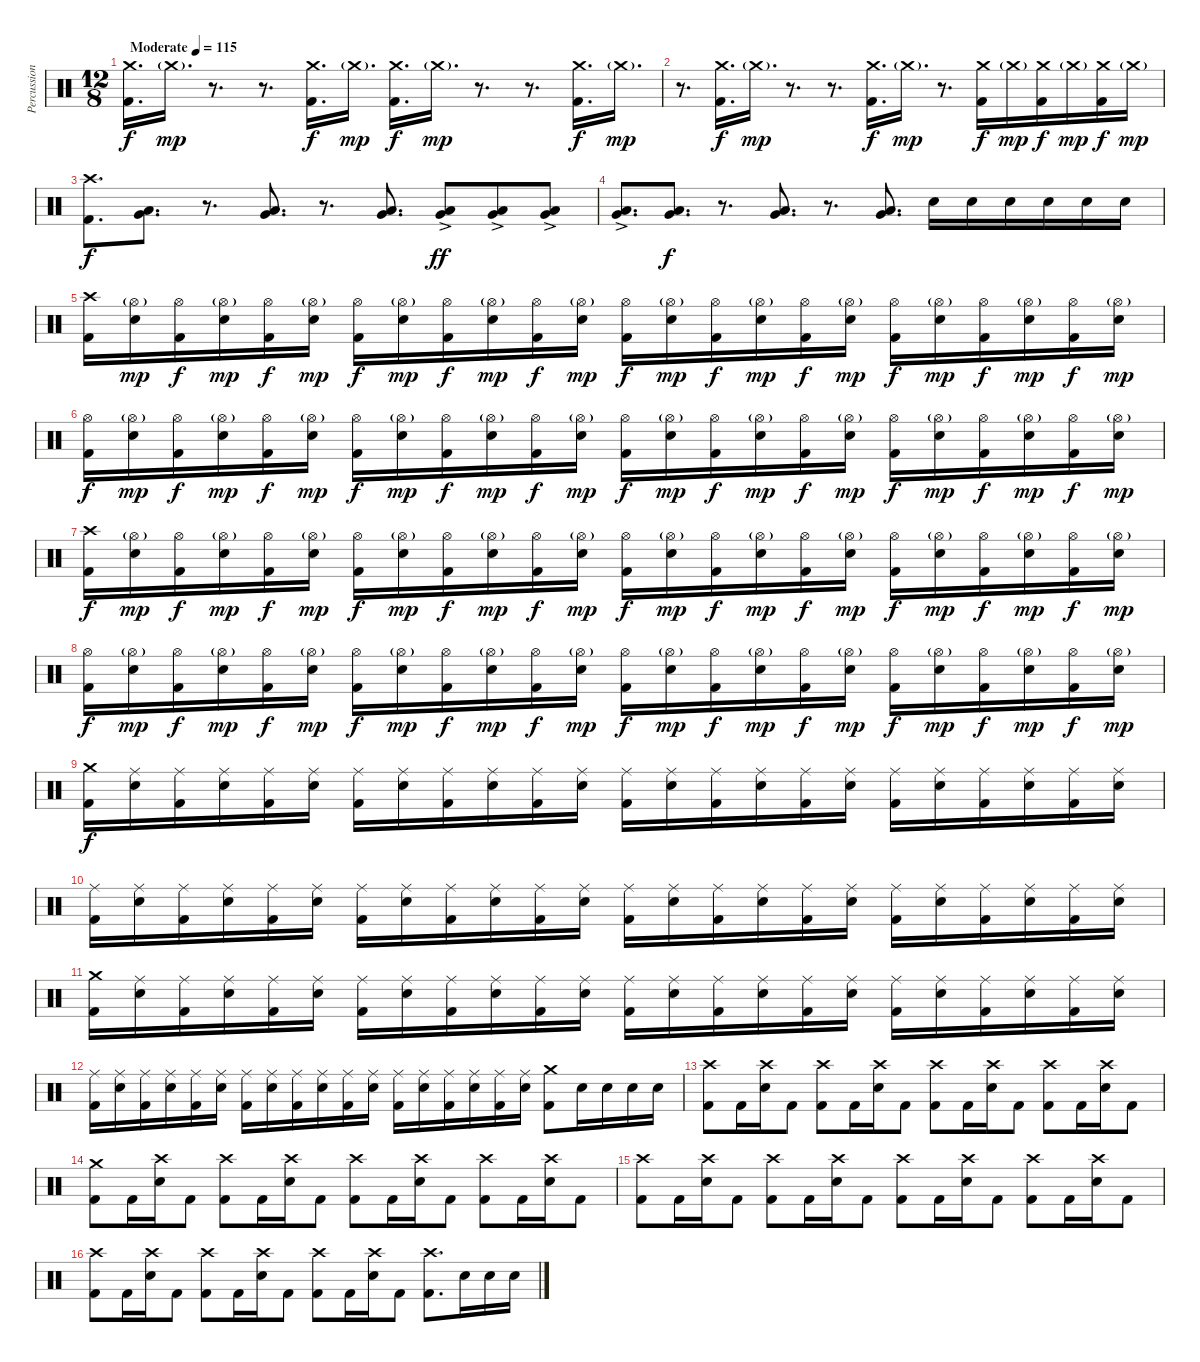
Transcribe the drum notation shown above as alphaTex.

\track ("Percussion" "Percussion") {instrument percussion}
\staff {score}
\articulation defaults
\ts (12 8)
\tempo (115 "Moderate")
\clef neutral
\ks c
("Crash medium (hit)" "Kick (hit) 2").16{d dy f} "Crash medium (hit)"{g}.16{d dy mp} r.8{d} r.8{d} ("Crash medium (hit)" "Kick (hit) 2").16{d dy f} "Crash medium (hit)"{g}.16{d dy mp} ("Crash medium (hit)" "Kick (hit) 2").16{d dy f} "Crash medium (hit)"{g}.16{d dy mp} r.8{d} r.8{d} ("Crash medium (hit)" "Kick (hit) 2").16{d dy f} "Crash medium (hit)"{g}.16{d dy mp} |
r.8{d} ("Crash medium (hit)" "Kick (hit) 2").16{d dy f} "Crash medium (hit)"{g}.16{d dy mp} r.8{d} r.8{d} ("Crash medium (hit)" "Kick (hit) 2").16{d dy f} "Crash medium (hit)"{g}.16{d dy mp} r.8{d} ("Crash medium (hit)" "Kick (hit) 2").16{dy f} "Crash medium (hit)"{g}.16{dy mp} ("Crash medium (hit)" "Kick (hit) 2").16{dy f} "Crash medium (hit)"{g}.16{dy mp} ("Crash medium (hit)" "Kick (hit) 2").16{dy f} "Crash medium (hit)"{g}.16{dy mp} |
("Crash high (hit)" "Kick (hit) 2").8{d dy f} ("Very Low Tom (hit)" "Low Floor Tom (hit)").8{d} r.8{d} ("Very Low Tom (hit)" "Low Floor Tom (hit)").8{d} r.8{d} ("Very Low Tom (hit)" "Low Floor Tom (hit)").8{d} ("Very Low Tom (hit)"{ac} "Low Floor Tom (hit)"{ac}).8{bd 240 dy ff} ("Very Low Tom (hit)"{ac} "Low Floor Tom (hit)"{ac}).8 ("Very Low Tom (hit)"{ac} "Low Floor Tom (hit)"{ac}).8 |
("Very Low Tom (hit)"{ac} "Low Floor Tom (hit)"{ac}).8{d} ("Very Low Tom (hit)" "Low Floor Tom (hit)").8{d dy f} r.8{d} ("Very Low Tom (hit)" "Low Floor Tom (hit)").8{d} r.8{d} ("Very Low Tom (hit)" "Low Floor Tom (hit)").8{d} "Electric Snare (hit)".16 "Electric Snare (hit)".16 "Electric Snare (hit)".16 "Electric Snare (hit)".16 "Electric Snare (hit)".16 "Electric Snare (hit)".16 |
("Crash high (hit)" "Kick (hit) 2").16 ("Hi-Hat (open)"{g} "Electric Snare (hit)").16{dy mp} ("Hi-Hat (open)" "Kick (hit) 2").16{dy f} ("Hi-Hat (open)"{g} "Electric Snare (hit)").16{dy mp} ("Hi-Hat (open)" "Kick (hit) 2").16{dy f} ("Hi-Hat (open)"{g} "Electric Snare (hit)").16{dy mp} ("Hi-Hat (open)" "Kick (hit) 2").16{dy f} ("Hi-Hat (open)"{g} "Electric Snare (hit)").16{dy mp} ("Hi-Hat (open)" "Kick (hit) 2").16{dy f} ("Hi-Hat (open)"{g} "Electric Snare (hit)").16{dy mp} ("Hi-Hat (open)" "Kick (hit) 2").16{dy f} ("Hi-Hat (open)"{g} "Electric Snare (hit)").16{dy mp} ("Hi-Hat (open)" "Kick (hit) 2").16{dy f} ("Hi-Hat (open)"{g} "Electric Snare (hit)").16{dy mp} ("Hi-Hat (open)" "Kick (hit) 2").16{dy f} ("Hi-Hat (open)"{g} "Electric Snare (hit)").16{dy mp} ("Hi-Hat (open)" "Kick (hit) 2").16{dy f} ("Hi-Hat (open)"{g} "Electric Snare (hit)").16{dy mp} ("Hi-Hat (open)" "Kick (hit) 2").16{dy f} ("Hi-Hat (open)"{g} "Electric Snare (hit)").16{dy mp} ("Hi-Hat (open)" "Kick (hit) 2").16{dy f} ("Hi-Hat (open)"{g} "Electric Snare (hit)").16{dy mp} ("Hi-Hat (open)" "Kick (hit) 2").16{dy f} ("Hi-Hat (open)"{g} "Electric Snare (hit)").16{dy mp} |
("Hi-Hat (open)" "Kick (hit) 2").16{dy f} ("Hi-Hat (open)"{g} "Electric Snare (hit)").16{dy mp} ("Hi-Hat (open)" "Kick (hit) 2").16{dy f} ("Hi-Hat (open)"{g} "Electric Snare (hit)").16{dy mp} ("Hi-Hat (open)" "Kick (hit) 2").16{dy f} ("Hi-Hat (open)"{g} "Electric Snare (hit)").16{dy mp} ("Hi-Hat (open)" "Kick (hit) 2").16{dy f} ("Hi-Hat (open)"{g} "Electric Snare (hit)").16{dy mp} ("Hi-Hat (open)" "Kick (hit) 2").16{dy f} ("Hi-Hat (open)"{g} "Electric Snare (hit)").16{dy mp} ("Hi-Hat (open)" "Kick (hit) 2").16{dy f} ("Hi-Hat (open)"{g} "Electric Snare (hit)").16{dy mp} ("Hi-Hat (open)" "Kick (hit) 2").16{dy f} ("Hi-Hat (open)"{g} "Electric Snare (hit)").16{dy mp} ("Hi-Hat (open)" "Kick (hit) 2").16{dy f} ("Hi-Hat (open)"{g} "Electric Snare (hit)").16{dy mp} ("Hi-Hat (open)" "Kick (hit) 2").16{dy f} ("Hi-Hat (open)"{g} "Electric Snare (hit)").16{dy mp} ("Hi-Hat (open)" "Kick (hit) 2").16{dy f} ("Hi-Hat (open)"{g} "Electric Snare (hit)").16{dy mp} ("Hi-Hat (open)" "Kick (hit) 2").16{dy f} ("Hi-Hat (open)"{g} "Electric Snare (hit)").16{dy mp} ("Hi-Hat (open)" "Kick (hit) 2").16{dy f} ("Hi-Hat (open)"{g} "Electric Snare (hit)").16{dy mp} |
("Crash high (hit)" "Kick (hit) 2").16{dy f} ("Hi-Hat (open)"{g} "Electric Snare (hit)").16{dy mp} ("Hi-Hat (open)" "Kick (hit) 2").16{dy f} ("Hi-Hat (open)"{g} "Electric Snare (hit)").16{dy mp} ("Hi-Hat (open)" "Kick (hit) 2").16{dy f} ("Hi-Hat (open)"{g} "Electric Snare (hit)").16{dy mp} ("Hi-Hat (open)" "Kick (hit) 2").16{dy f} ("Hi-Hat (open)"{g} "Electric Snare (hit)").16{dy mp} ("Hi-Hat (open)" "Kick (hit) 2").16{dy f} ("Hi-Hat (open)"{g} "Electric Snare (hit)").16{dy mp} ("Hi-Hat (open)" "Kick (hit) 2").16{dy f} ("Hi-Hat (open)"{g} "Electric Snare (hit)").16{dy mp} ("Hi-Hat (open)" "Kick (hit) 2").16{dy f} ("Hi-Hat (open)"{g} "Electric Snare (hit)").16{dy mp} ("Hi-Hat (open)" "Kick (hit) 2").16{dy f} ("Hi-Hat (open)"{g} "Electric Snare (hit)").16{dy mp} ("Hi-Hat (open)" "Kick (hit) 2").16{dy f} ("Hi-Hat (open)"{g} "Electric Snare (hit)").16{dy mp} ("Hi-Hat (open)" "Kick (hit) 2").16{dy f} ("Hi-Hat (open)"{g} "Electric Snare (hit)").16{dy mp} ("Hi-Hat (open)" "Kick (hit) 2").16{dy f} ("Hi-Hat (open)"{g} "Electric Snare (hit)").16{dy mp} ("Hi-Hat (open)" "Kick (hit) 2").16{dy f} ("Hi-Hat (open)"{g} "Electric Snare (hit)").16{dy mp} |
("Hi-Hat (open)" "Kick (hit) 2").16{dy f} ("Hi-Hat (open)"{g} "Electric Snare (hit)").16{dy mp} ("Hi-Hat (open)" "Kick (hit) 2").16{dy f} ("Hi-Hat (open)"{g} "Electric Snare (hit)").16{dy mp} ("Hi-Hat (open)" "Kick (hit) 2").16{dy f} ("Hi-Hat (open)"{g} "Electric Snare (hit)").16{dy mp} ("Hi-Hat (open)" "Kick (hit) 2").16{dy f} ("Hi-Hat (open)"{g} "Electric Snare (hit)").16{dy mp} ("Hi-Hat (open)" "Kick (hit) 2").16{dy f} ("Hi-Hat (open)"{g} "Electric Snare (hit)").16{dy mp} ("Hi-Hat (open)" "Kick (hit) 2").16{dy f} ("Hi-Hat (open)"{g} "Electric Snare (hit)").16{dy mp} ("Hi-Hat (open)" "Kick (hit) 2").16{dy f} ("Hi-Hat (open)"{g} "Electric Snare (hit)").16{dy mp} ("Hi-Hat (open)" "Kick (hit) 2").16{dy f} ("Hi-Hat (open)"{g} "Electric Snare (hit)").16{dy mp} ("Hi-Hat (open)" "Kick (hit) 2").16{dy f} ("Hi-Hat (open)"{g} "Electric Snare (hit)").16{dy mp} ("Hi-Hat (open)" "Kick (hit) 2").16{dy f} ("Hi-Hat (open)"{g} "Electric Snare (hit)").16{dy mp} ("Hi-Hat (open)" "Kick (hit) 2").16{dy f} ("Hi-Hat (open)"{g} "Electric Snare (hit)").16{dy mp} ("Hi-Hat (open)" "Kick (hit) 2").16{dy f} ("Hi-Hat (open)"{g} "Electric Snare (hit)").16{dy mp} |
("Crash medium (hit)" "Kick (hit) 2").16{dy f} ("Ride (middle)" "Electric Snare (hit)").16 ("Ride (middle)" "Kick (hit) 2").16 ("Ride (middle)" "Electric Snare (hit)").16 ("Ride (middle)" "Kick (hit) 2").16 ("Ride (middle)" "Electric Snare (hit)").16 ("Ride (middle)" "Kick (hit) 2").16 ("Ride (middle)" "Electric Snare (hit)").16 ("Ride (middle)" "Kick (hit) 2").16 ("Ride (middle)" "Electric Snare (hit)").16 ("Ride (middle)" "Kick (hit) 2").16 ("Ride (middle)" "Electric Snare (hit)").16 ("Ride (middle)" "Kick (hit) 2").16 ("Ride (middle)" "Electric Snare (hit)").16 ("Ride (middle)" "Kick (hit) 2").16 ("Ride (middle)" "Electric Snare (hit)").16 ("Ride (middle)" "Kick (hit) 2").16 ("Ride (middle)" "Electric Snare (hit)").16 ("Ride (middle)" "Kick (hit) 2").16 ("Ride (middle)" "Electric Snare (hit)").16 ("Ride (middle)" "Kick (hit) 2").16 ("Ride (middle)" "Electric Snare (hit)").16 ("Ride (middle)" "Kick (hit) 2").16 ("Ride (middle)" "Electric Snare (hit)").16 |
("Ride (middle)" "Kick (hit) 2").16 ("Ride (middle)" "Electric Snare (hit)").16 ("Ride (middle)" "Kick (hit) 2").16 ("Ride (middle)" "Electric Snare (hit)").16 ("Ride (middle)" "Kick (hit) 2").16 ("Ride (middle)" "Electric Snare (hit)").16 ("Ride (middle)" "Kick (hit) 2").16 ("Ride (middle)" "Electric Snare (hit)").16 ("Ride (middle)" "Kick (hit) 2").16 ("Ride (middle)" "Electric Snare (hit)").16 ("Ride (middle)" "Kick (hit) 2").16 ("Ride (middle)" "Electric Snare (hit)").16 ("Ride (middle)" "Kick (hit) 2").16 ("Ride (middle)" "Electric Snare (hit)").16 ("Ride (middle)" "Kick (hit) 2").16 ("Ride (middle)" "Electric Snare (hit)").16 ("Ride (middle)" "Kick (hit) 2").16 ("Ride (middle)" "Electric Snare (hit)").16 ("Ride (middle)" "Kick (hit) 2").16 ("Ride (middle)" "Electric Snare (hit)").16 ("Ride (middle)" "Kick (hit) 2").16 ("Ride (middle)" "Electric Snare (hit)").16 ("Ride (middle)" "Kick (hit) 2").16 ("Ride (middle)" "Electric Snare (hit)").16 |
("Crash medium (hit)" "Kick (hit) 2").16 ("Ride (middle)" "Electric Snare (hit)").16 ("Ride (middle)" "Kick (hit) 2").16 ("Ride (middle)" "Electric Snare (hit)").16 ("Ride (middle)" "Kick (hit) 2").16 ("Ride (middle)" "Electric Snare (hit)").16 ("Ride (middle)" "Kick (hit) 2").16 ("Ride (middle)" "Electric Snare (hit)").16 ("Ride (middle)" "Kick (hit) 2").16 ("Ride (middle)" "Electric Snare (hit)").16 ("Ride (middle)" "Kick (hit) 2").16 ("Ride (middle)" "Electric Snare (hit)").16 ("Ride (middle)" "Kick (hit) 2").16 ("Ride (middle)" "Electric Snare (hit)").16 ("Ride (middle)" "Kick (hit) 2").16 ("Ride (middle)" "Electric Snare (hit)").16 ("Ride (middle)" "Kick (hit) 2").16 ("Ride (middle)" "Electric Snare (hit)").16 ("Ride (middle)" "Kick (hit) 2").16 ("Ride (middle)" "Electric Snare (hit)").16 ("Ride (middle)" "Kick (hit) 2").16 ("Ride (middle)" "Electric Snare (hit)").16 ("Ride (middle)" "Kick (hit) 2").16 ("Ride (middle)" "Electric Snare (hit)").16 |
("Ride (middle)" "Kick (hit) 2").16 ("Ride (middle)" "Electric Snare (hit)").16 ("Ride (middle)" "Kick (hit) 2").16 ("Ride (middle)" "Electric Snare (hit)").16 ("Ride (middle)" "Kick (hit) 2").16 ("Ride (middle)" "Electric Snare (hit)").16 ("Ride (middle)" "Kick (hit) 2").16 ("Ride (middle)" "Electric Snare (hit)").16 ("Ride (middle)" "Kick (hit) 2").16 ("Ride (middle)" "Electric Snare (hit)").16 ("Ride (middle)" "Kick (hit) 2").16 ("Ride (middle)" "Electric Snare (hit)").16 ("Ride (middle)" "Kick (hit) 2").16 ("Ride (middle)" "Electric Snare (hit)").16 ("Ride (middle)" "Kick (hit) 2").16 ("Ride (middle)" "Electric Snare (hit)").16 ("Ride (middle)" "Kick (hit) 2").16 ("Ride (middle)" "Electric Snare (hit)").16 ("Crash medium (hit)" "Kick (hit) 2").8 "Electric Snare (hit)".16 "Electric Snare (hit)".16 "Electric Snare (hit)".16 "Electric Snare (hit)".16 |
("Crash high (hit)" "Kick (hit) 2").8 "Kick (hit) 2".16 ("Crash high (hit)" "Electric Snare (hit)").16 "Kick (hit) 2".8 ("Crash high (hit)" "Kick (hit) 2").8 "Kick (hit) 2".16 ("Crash high (hit)" "Electric Snare (hit)").16 "Kick (hit) 2".8 ("Crash high (hit)" "Kick (hit) 2").8 "Kick (hit) 2".16 ("Crash high (hit)" "Electric Snare (hit)").16 "Kick (hit) 2".8 ("Crash high (hit)" "Kick (hit) 2").8 "Kick (hit) 2".16 ("Crash high (hit)" "Electric Snare (hit)").16 "Kick (hit) 2".8 |
("Crash medium (hit)" "Kick (hit) 2").8 "Kick (hit) 2".16 ("Crash high (hit)" "Electric Snare (hit)").16 "Kick (hit) 2".8 ("Crash high (hit)" "Kick (hit) 2").8 "Kick (hit) 2".16 ("Crash high (hit)" "Electric Snare (hit)").16 "Kick (hit) 2".8 ("Crash high (hit)" "Kick (hit) 2").8 "Kick (hit) 2".16 ("Crash high (hit)" "Electric Snare (hit)").16 "Kick (hit) 2".8 ("Crash high (hit)" "Kick (hit) 2").8 "Kick (hit) 2".16 ("Crash high (hit)" "Electric Snare (hit)").16 "Kick (hit) 2".8 |
("Crash high (hit)" "Kick (hit) 2").8 "Kick (hit) 2".16 ("Crash high (hit)" "Electric Snare (hit)").16 "Kick (hit) 2".8 ("Crash high (hit)" "Kick (hit) 2").8 "Kick (hit) 2".16 ("Crash high (hit)" "Electric Snare (hit)").16 "Kick (hit) 2".8 ("Crash high (hit)" "Kick (hit) 2").8 "Kick (hit) 2".16 ("Crash high (hit)" "Electric Snare (hit)").16 "Kick (hit) 2".8 ("Crash high (hit)" "Kick (hit) 2").8 "Kick (hit) 2".16 ("Crash high (hit)" "Electric Snare (hit)").16 "Kick (hit) 2".8 |
("Crash high (hit)" "Kick (hit) 2").8 "Kick (hit) 2".16 ("Crash high (hit)" "Electric Snare (hit)").16 "Kick (hit) 2".8 ("Crash high (hit)" "Kick (hit) 2").8 "Kick (hit) 2".16 ("Crash high (hit)" "Electric Snare (hit)").16 "Kick (hit) 2".8 ("Crash high (hit)" "Kick (hit) 2").8 "Kick (hit) 2".16 ("Crash high (hit)" "Electric Snare (hit)").16 "Kick (hit) 2".8 ("Crash high (hit)" "Kick (hit) 2").8{d} "Electric Snare (hit)".16 "Electric Snare (hit)".16 "Electric Snare (hit)".16
